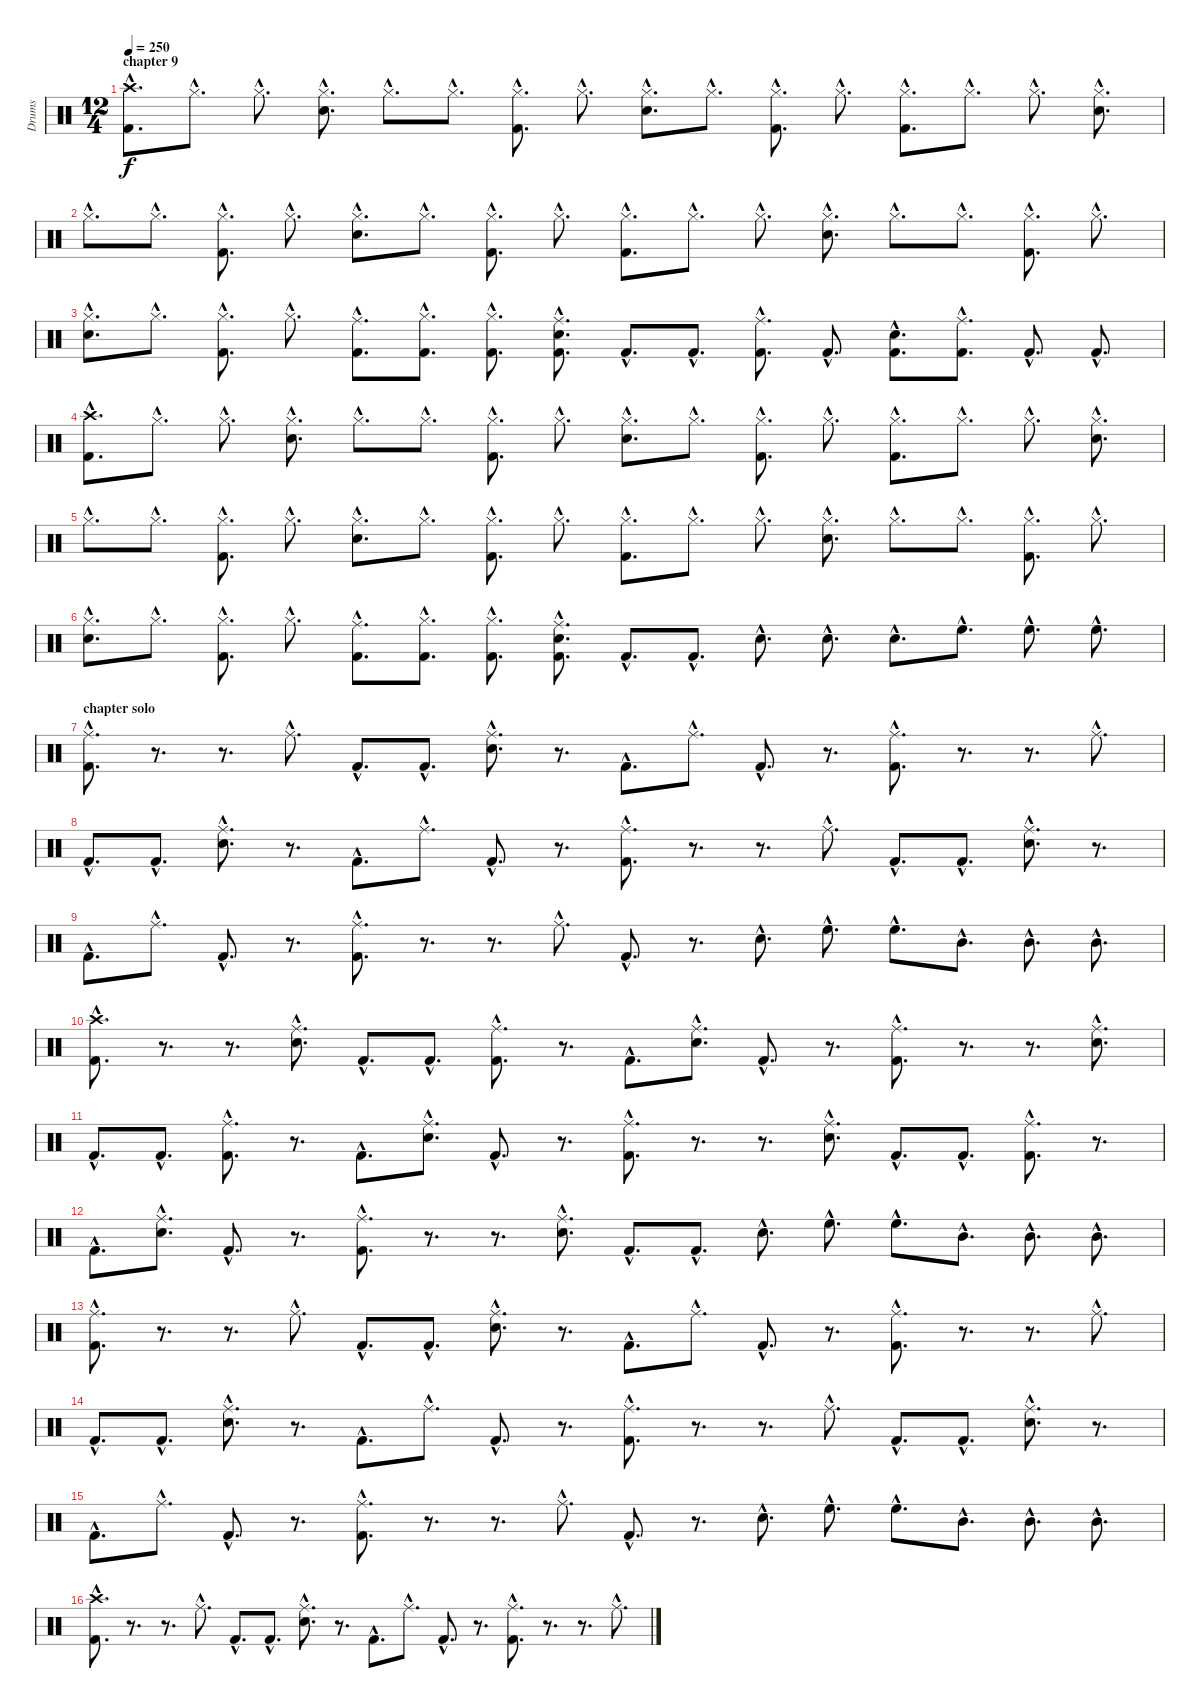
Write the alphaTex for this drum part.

\track ("Drums" "Drums") {instrument percussion}
\staff {score}
\articulation defaults
\ts (12 4)
\section ("" "chapter 9")
\tempo 250
\clef neutral
\ks c
("Crash high (hit)"{hac} "Kick (hit) 2"{hac}).8{d dy f} "Hi-Hat (closed)"{hac}.8{d} "Hi-Hat (closed)"{hac}.8{d} ("Hi-Hat (closed)"{hac} "Snare (hit) 2"{hac}).8{d} "Hi-Hat (closed)"{hac}.8{d} "Hi-Hat (closed)"{hac}.8{d} ("Hi-Hat (closed)"{hac} "Kick (hit) 2"{hac}).8{d} "Hi-Hat (closed)"{hac}.8{d} ("Hi-Hat (closed)"{hac} "Snare (hit) 2"{hac}).8{d} "Hi-Hat (closed)"{hac}.8{d} ("Hi-Hat (closed)"{hac} "Kick (hit) 2"{hac}).8{d} "Hi-Hat (closed)"{hac}.8{d} ("Hi-Hat (closed)"{hac} "Kick (hit) 2"{hac}).8{d} "Hi-Hat (closed)"{hac}.8{d} "Hi-Hat (closed)"{hac}.8{d} ("Hi-Hat (closed)"{hac} "Snare (hit) 2"{hac}).8{d} |
"Hi-Hat (closed)"{hac}.8{d} "Hi-Hat (closed)"{hac}.8{d} ("Hi-Hat (closed)"{hac} "Kick (hit) 2"{hac}).8{d} "Hi-Hat (closed)"{hac}.8{d} ("Hi-Hat (closed)"{hac} "Snare (hit) 2"{hac}).8{d} "Hi-Hat (closed)"{hac}.8{d} ("Hi-Hat (closed)"{hac} "Kick (hit) 2"{hac}).8{d} "Hi-Hat (closed)"{hac}.8{d} ("Hi-Hat (closed)"{hac} "Kick (hit) 2"{hac}).8{d} "Hi-Hat (closed)"{hac}.8{d} "Hi-Hat (closed)"{hac}.8{d} ("Hi-Hat (closed)"{hac} "Snare (hit) 2"{hac}).8{d} "Hi-Hat (closed)"{hac}.8{d} "Hi-Hat (closed)"{hac}.8{d} ("Hi-Hat (closed)"{hac} "Kick (hit) 2"{hac}).8{d} "Hi-Hat (closed)"{hac}.8{d} |
("Hi-Hat (closed)"{hac} "Snare (hit) 2"{hac}).8{d} "Hi-Hat (closed)"{hac}.8{d} ("Hi-Hat (closed)"{hac} "Kick (hit) 2"{hac}).8{d} "Hi-Hat (closed)"{hac}.8{d} ("Ride (middle)"{hac} "Kick (hit) 2"{hac}).8{d} ("Hi-Hat (closed)"{hac} "Kick (hit) 2"{hac}).8{d} ("Hi-Hat (closed)"{hac} "Kick (hit) 2"{hac}).8{d} ("Ride (middle)"{hac} "Snare (hit) 2"{hac} "Kick (hit) 2"{hac}).8{d} "Kick (hit) 2"{hac}.8{d} "Kick (hit) 2"{hac}.8{d} ("Ride (middle)"{hac} "Kick (hit) 2"{hac}).8{d} "Kick (hit) 2"{hac}.8{d} ("Snare (hit) 2"{hac} "Kick (hit) 2"{hac}).8{d} ("Ride (middle)"{hac} "Kick (hit) 2"{hac}).8{d} "Kick (hit) 2"{hac}.8{d} "Kick (hit) 2"{hac}.8{d} |
("Crash high (hit)"{hac} "Kick (hit) 2"{hac}).8{d} "Hi-Hat (closed)"{hac}.8{d} "Hi-Hat (closed)"{hac}.8{d} ("Hi-Hat (closed)"{hac} "Snare (hit) 2"{hac}).8{d} "Hi-Hat (closed)"{hac}.8{d} "Hi-Hat (closed)"{hac}.8{d} ("Hi-Hat (closed)"{hac} "Kick (hit) 2"{hac}).8{d} "Hi-Hat (closed)"{hac}.8{d} ("Hi-Hat (closed)"{hac} "Snare (hit) 2"{hac}).8{d} "Hi-Hat (closed)"{hac}.8{d} ("Hi-Hat (closed)"{hac} "Kick (hit) 2"{hac}).8{d} "Hi-Hat (closed)"{hac}.8{d} ("Hi-Hat (closed)"{hac} "Kick (hit) 2"{hac}).8{d} "Hi-Hat (closed)"{hac}.8{d} "Hi-Hat (closed)"{hac}.8{d} ("Hi-Hat (closed)"{hac} "Snare (hit) 2"{hac}).8{d} |
"Hi-Hat (closed)"{hac}.8{d} "Hi-Hat (closed)"{hac}.8{d} ("Hi-Hat (closed)"{hac} "Kick (hit) 2"{hac}).8{d} "Hi-Hat (closed)"{hac}.8{d} ("Hi-Hat (closed)"{hac} "Snare (hit) 2"{hac}).8{d} "Hi-Hat (closed)"{hac}.8{d} ("Hi-Hat (closed)"{hac} "Kick (hit) 2"{hac}).8{d} "Hi-Hat (closed)"{hac}.8{d} ("Hi-Hat (closed)"{hac} "Kick (hit) 2"{hac}).8{d} "Hi-Hat (closed)"{hac}.8{d} "Hi-Hat (closed)"{hac}.8{d} ("Hi-Hat (closed)"{hac} "Snare (hit) 2"{hac}).8{d} "Hi-Hat (closed)"{hac}.8{d} "Hi-Hat (closed)"{hac}.8{d} ("Hi-Hat (closed)"{hac} "Kick (hit) 2"{hac}).8{d} "Hi-Hat (closed)"{hac}.8{d} |
("Hi-Hat (closed)"{hac} "Snare (hit) 2"{hac}).8{d} "Hi-Hat (closed)"{hac}.8{d} ("Hi-Hat (closed)"{hac} "Kick (hit) 2"{hac}).8{d} "Hi-Hat (closed)"{hac}.8{d} ("Ride (middle)"{hac} "Kick (hit) 2"{hac}).8{d} ("Hi-Hat (closed)"{hac} "Kick (hit) 2"{hac}).8{d} ("Hi-Hat (closed)"{hac} "Kick (hit) 2"{hac}).8{d} ("Ride (middle)"{hac} "Snare (hit) 2"{hac} "Kick (hit) 2"{hac}).8{d} "Kick (hit) 2"{hac}.8{d} "Kick (hit) 2"{hac}.8{d} "Snare (hit) 2"{hac}.8{d} "Snare (hit) 2"{hac}.8{d} "Snare (hit) 2"{hac}.8{d} "High Floor Tom (hit)"{hac}.8{d} "High Floor Tom (hit)"{hac}.8{d} "High Floor Tom (hit)"{hac}.8{d} |
\section ("" "chapter solo")
("Ride (middle)"{hac} "Kick (hit) 2"{hac}).8{d} r.8{d} r.8{d} "Ride (middle)"{hac}.8{d} "Kick (hit) 2"{hac}.8{d} "Kick (hit) 2"{hac}.8{d} ("Ride (middle)"{hac} "Snare (hit) 2"{hac}).8{d} r.8{d} "Kick (hit) 2"{hac}.8{d} "Ride (middle)"{hac}.8{d} "Kick (hit) 2"{hac}.8{d} r.8{d} ("Ride (middle)"{hac} "Kick (hit) 2"{hac}).8{d} r.8{d} r.8{d} "Ride (middle)"{hac}.8{d} |
"Kick (hit) 2"{hac}.8{d} "Kick (hit) 2"{hac}.8{d} ("Ride (middle)"{hac} "Snare (hit) 2"{hac}).8{d} r.8{d} "Kick (hit) 2"{hac}.8{d} "Ride (middle)"{hac}.8{d} "Kick (hit) 2"{hac}.8{d} r.8{d} ("Ride (middle)"{hac} "Kick (hit) 2"{hac}).8{d} r.8{d} r.8{d} "Ride (middle)"{hac}.8{d} "Kick (hit) 2"{hac}.8{d} "Kick (hit) 2"{hac}.8{d} ("Ride (middle)"{hac} "Snare (hit) 2"{hac}).8{d} r.8{d} |
"Kick (hit) 2"{hac}.8{d} "Ride (middle)"{hac}.8{d} "Kick (hit) 2"{hac}.8{d} r.8{d} ("Ride (middle)"{hac} "Kick (hit) 2"{hac}).8{d} r.8{d} r.8{d} "Ride (middle)"{hac}.8{d} "Kick (hit) 2"{hac}.8{d} r.8{d} "Snare (hit) 2"{hac}.8{d} "High Floor Tom (hit)"{hac}.8{d} "High Floor Tom (hit)"{hac}.8{d} "Mid Tom (hit)"{hac}.8{d} "Mid Tom (hit)"{hac}.8{d} "Mid Tom (hit)"{hac}.8{d} |
("Crash high (hit)"{hac} "Kick (hit) 2"{hac}).8{d} r.8{d} r.8{d} ("Ride (middle)"{hac} "Snare (hit) 2"{hac}).8{d} "Kick (hit) 2"{hac}.8{d} "Kick (hit) 2"{hac}.8{d} ("Ride (middle)"{hac} "Kick (hit) 2"{hac}).8{d} r.8{d} "Kick (hit) 2"{hac}.8{d} ("Ride (middle)"{hac} "Snare (hit) 2"{hac}).8{d} "Kick (hit) 2"{hac}.8{d} r.8{d} ("Ride (middle)"{hac} "Kick (hit) 2"{hac}).8{d} r.8{d} r.8{d} ("Ride (middle)"{hac} "Snare (hit) 2"{hac}).8{d} |
"Kick (hit) 2"{hac}.8{d} "Kick (hit) 2"{hac}.8{d} ("Ride (middle)"{hac} "Kick (hit) 2"{hac}).8{d} r.8{d} "Kick (hit) 2"{hac}.8{d} ("Ride (middle)"{hac} "Snare (hit) 2"{hac}).8{d} "Kick (hit) 2"{hac}.8{d} r.8{d} ("Ride (middle)"{hac} "Kick (hit) 2"{hac}).8{d} r.8{d} r.8{d} ("Ride (middle)"{hac} "Snare (hit) 2"{hac}).8{d} "Kick (hit) 2"{hac}.8{d} "Kick (hit) 2"{hac}.8{d} ("Ride (middle)"{hac} "Kick (hit) 2"{hac}).8{d} r.8{d} |
"Kick (hit) 2"{hac}.8{d} ("Ride (middle)"{hac} "Snare (hit) 2"{hac}).8{d} "Kick (hit) 2"{hac}.8{d} r.8{d} ("Ride (middle)"{hac} "Kick (hit) 2"{hac}).8{d} r.8{d} r.8{d} ("Ride (middle)"{hac} "Snare (hit) 2"{hac}).8{d} "Kick (hit) 2"{hac}.8{d} "Kick (hit) 2"{hac}.8{d} "Snare (hit) 2"{hac}.8{d} "High Floor Tom (hit)"{hac}.8{d} "High Floor Tom (hit)"{hac}.8{d} "Mid Tom (hit)"{hac}.8{d} "Mid Tom (hit)"{hac}.8{d} "Mid Tom (hit)"{hac}.8{d} |
("Ride (middle)"{hac} "Kick (hit) 2"{hac}).8{d} r.8{d} r.8{d} "Ride (middle)"{hac}.8{d} "Kick (hit) 2"{hac}.8{d} "Kick (hit) 2"{hac}.8{d} ("Ride (middle)"{hac} "Snare (hit) 2"{hac}).8{d} r.8{d} "Kick (hit) 2"{hac}.8{d} "Ride (middle)"{hac}.8{d} "Kick (hit) 2"{hac}.8{d} r.8{d} ("Ride (middle)"{hac} "Kick (hit) 2"{hac}).8{d} r.8{d} r.8{d} "Ride (middle)"{hac}.8{d} |
"Kick (hit) 2"{hac}.8{d} "Kick (hit) 2"{hac}.8{d} ("Ride (middle)"{hac} "Snare (hit) 2"{hac}).8{d} r.8{d} "Kick (hit) 2"{hac}.8{d} "Ride (middle)"{hac}.8{d} "Kick (hit) 2"{hac}.8{d} r.8{d} ("Ride (middle)"{hac} "Kick (hit) 2"{hac}).8{d} r.8{d} r.8{d} "Ride (middle)"{hac}.8{d} "Kick (hit) 2"{hac}.8{d} "Kick (hit) 2"{hac}.8{d} ("Ride (middle)"{hac} "Snare (hit) 2"{hac}).8{d} r.8{d} |
"Kick (hit) 2"{hac}.8{d} "Ride (middle)"{hac}.8{d} "Kick (hit) 2"{hac}.8{d} r.8{d} ("Ride (middle)"{hac} "Kick (hit) 2"{hac}).8{d} r.8{d} r.8{d} "Ride (middle)"{hac}.8{d} "Kick (hit) 2"{hac}.8{d} r.8{d} "Snare (hit) 2"{hac}.8{d} "High Floor Tom (hit)"{hac}.8{d} "High Floor Tom (hit)"{hac}.8{d} "Mid Tom (hit)"{hac}.8{d} "Mid Tom (hit)"{hac}.8{d} "Mid Tom (hit)"{hac}.8{d} |
("Crash high (hit)"{hac} "Kick (hit) 2"{hac}).8{d} r.8{d} r.8{d} "Ride (middle)"{hac}.8{d} "Kick (hit) 2"{hac}.8{d} "Kick (hit) 2"{hac}.8{d} ("Ride (middle)"{hac} "Snare (hit) 2"{hac}).8{d} r.8{d} "Kick (hit) 2"{hac}.8{d} "Ride (middle)"{hac}.8{d} "Kick (hit) 2"{hac}.8{d} r.8{d} ("Ride (middle)"{hac} "Kick (hit) 2"{hac}).8{d} r.8{d} r.8{d} "Ride (middle)"{hac}.8{d}
